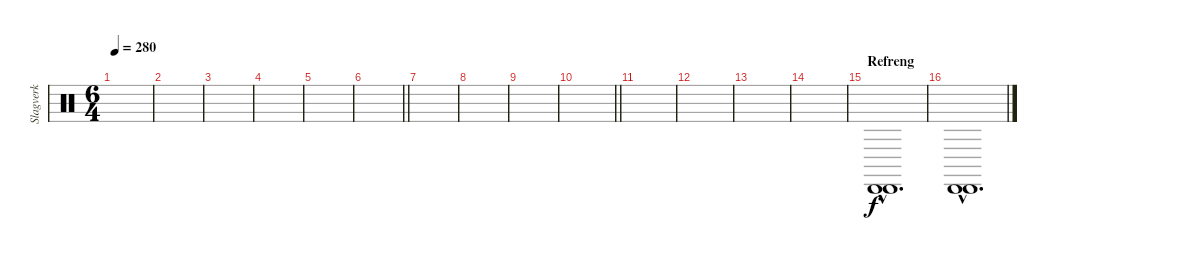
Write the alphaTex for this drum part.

\track ("Slagverk" "Slagverk") {instrument percussion}
\staff {score}
\articulation defaults
\ts (6 4)
\tempo 280
\clef neutral
\ks c
|
|
|
|
|
\barLineRight lightlight
|
|
|
|
\barLineRight lightlight
|
|
|
|
|
\section ("" "Refreng")
("Cabasa (hit)"{hac} "Cabasa (hit)"{hac}).1{d} |
("Cabasa (hit)"{hac} "Cabasa (hit)"{hac}).1{d}
